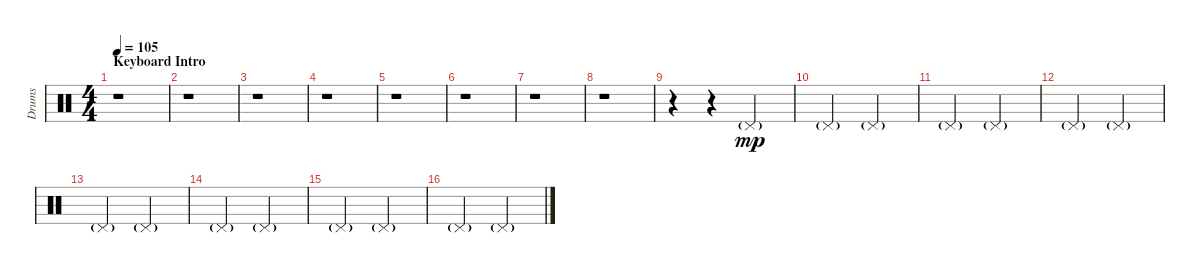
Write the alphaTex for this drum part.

\track ("Drums" "Drums") {instrument percussion}
\staff {score}
\articulation defaults
\ts (4 4)
\section ("" "Keyboard Intro")
\tempo 105
\clef neutral
\ks c
r.1{dy mp} |
r.1 |
r.1 |
r.1 |
r.1 |
r.1 |
r.1 |
r.1 |
r.4 r.4 "Pedal Hi-Hat (hit)"{g}.2 |
"Pedal Hi-Hat (hit)"{g}.2 "Pedal Hi-Hat (hit)"{g}.2 |
"Pedal Hi-Hat (hit)"{g}.2 "Pedal Hi-Hat (hit)"{g}.2 |
"Pedal Hi-Hat (hit)"{g}.2 "Pedal Hi-Hat (hit)"{g}.2 |
"Pedal Hi-Hat (hit)"{g}.2 "Pedal Hi-Hat (hit)"{g}.2 |
"Pedal Hi-Hat (hit)"{g}.2 "Pedal Hi-Hat (hit)"{g}.2 |
"Pedal Hi-Hat (hit)"{g}.2 "Pedal Hi-Hat (hit)"{g}.2 |
"Pedal Hi-Hat (hit)"{g}.2 "Pedal Hi-Hat (hit)"{g}.2
